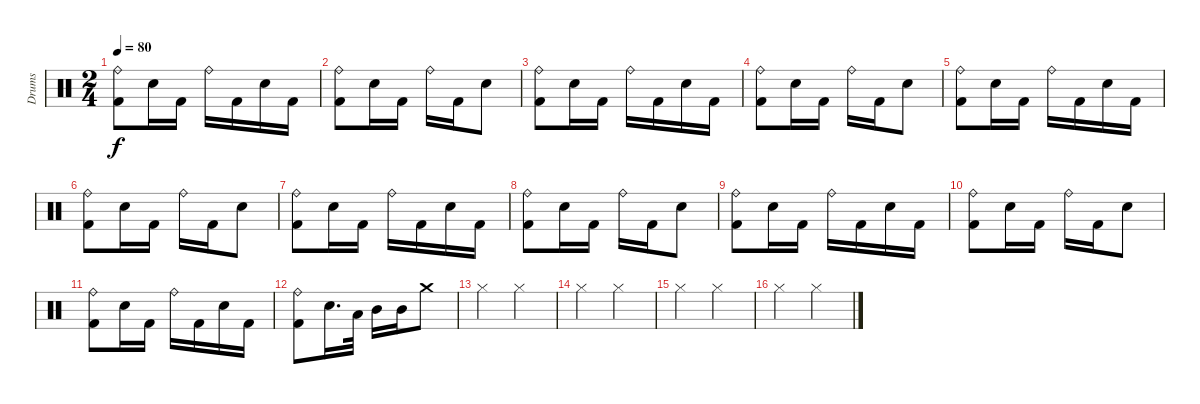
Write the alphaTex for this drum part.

\track ("Drums" "Drums") {instrument percussion}
\staff {score}
\articulation defaults
\ts (2 4)
\tempo 80
\clef neutral
\ks aminor
("Kick (hit) 2" "Ride (bell)").8{dy f} "Electric Snare (hit)".16 "Kick (hit) 2".16 "Ride (bell)".16 "Kick (hit) 2".16 "Electric Snare (hit)".16 "Kick (hit) 2".16 |
("Kick (hit) 2" "Ride (bell)").8 "Electric Snare (hit)".16 "Kick (hit) 2".16 "Ride (bell)".16 "Kick (hit) 2".16 "Electric Snare (hit)".8 |
("Kick (hit) 2" "Ride (bell)").8 "Electric Snare (hit)".16 "Kick (hit) 2".16 "Ride (bell)".16 "Kick (hit) 2".16 "Electric Snare (hit)".16 "Kick (hit) 2".16 |
("Kick (hit) 2" "Ride (bell)").8 "Electric Snare (hit)".16 "Kick (hit) 2".16 "Ride (bell)".16 "Kick (hit) 2".16 "Electric Snare (hit)".8 |
("Kick (hit) 2" "Ride (bell)").8 "Electric Snare (hit)".16 "Kick (hit) 2".16 "Ride (bell)".16 "Kick (hit) 2".16 "Electric Snare (hit)".16 "Kick (hit) 2".16 |
("Kick (hit) 2" "Ride (bell)").8 "Electric Snare (hit)".16 "Kick (hit) 2".16 "Ride (bell)".16 "Kick (hit) 2".16 "Electric Snare (hit)".8 |
("Kick (hit) 2" "Ride (bell)").8 "Electric Snare (hit)".16 "Kick (hit) 2".16 "Ride (bell)".16 "Kick (hit) 2".16 "Electric Snare (hit)".16 "Kick (hit) 2".16 |
("Kick (hit) 2" "Ride (bell)").8 "Electric Snare (hit)".16 "Kick (hit) 2".16 "Ride (bell)".16 "Kick (hit) 2".16 "Electric Snare (hit)".8 |
("Kick (hit) 2" "Ride (bell)").8 "Electric Snare (hit)".16 "Kick (hit) 2".16 "Ride (bell)".16 "Kick (hit) 2".16 "Electric Snare (hit)".16 "Kick (hit) 2".16 |
("Kick (hit) 2" "Ride (bell)").8 "Electric Snare (hit)".16 "Kick (hit) 2".16 "Ride (bell)".16 "Kick (hit) 2".16 "Electric Snare (hit)".8 |
("Kick (hit) 2" "Ride (bell)").8 "Electric Snare (hit)".16 "Kick (hit) 2".16 "Ride (bell)".16 "Kick (hit) 2".16 "Electric Snare (hit)".16 "Kick (hit) 2".16 |
("Kick (hit) 2" "Ride (bell)").8 "Electric Snare (hit)".16{d} "Low Tom (hit)".32 "Mid Tom (hit)".16 "Mid Tom (hit)".16 "Crash medium (hit)".8 |
"Hi-Hat (closed)".4 "Hi-Hat (closed)".4 |
"Hi-Hat (closed)".4 "Hi-Hat (closed)".4 |
"Hi-Hat (closed)".4 "Hi-Hat (closed)".4 |
"Hi-Hat (closed)".4 "Hi-Hat (closed)".4
